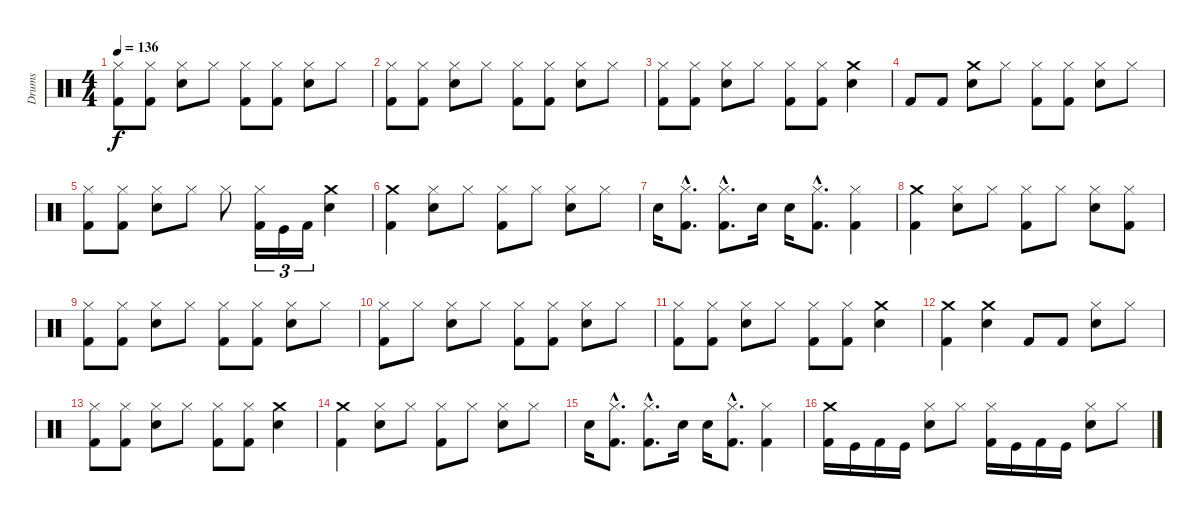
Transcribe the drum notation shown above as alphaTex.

\track ("Drums" "Drums") {instrument percussion}
\staff {score}
\articulation defaults
\ts (4 4)
\tempo 136
\clef neutral
\ks c
("Hi-Hat (closed)" "Kick (hit) 2").8{dy f} ("Hi-Hat (closed)" "Kick (hit) 2").8 ("Snare (hit) 2" "Hi-Hat (closed)").8 "Hi-Hat (closed)".8 ("Hi-Hat (closed)" "Kick (hit) 2").8 ("Hi-Hat (closed)" "Kick (hit) 2").8 ("Snare (hit) 2" "Hi-Hat (closed)").8 "Hi-Hat (closed)".8 |
("Hi-Hat (closed)" "Kick (hit) 2").8 ("Hi-Hat (closed)" "Kick (hit) 2").8 ("Snare (hit) 2" "Hi-Hat (closed)").8 "Hi-Hat (closed)".8 ("Hi-Hat (closed)" "Kick (hit) 2").8 ("Hi-Hat (closed)" "Kick (hit) 2").8 ("Snare (hit) 2" "Hi-Hat (closed)").8 "Hi-Hat (closed)".8 |
("Hi-Hat (closed)" "Kick (hit) 2").8 ("Hi-Hat (closed)" "Kick (hit) 2").8 ("Snare (hit) 2" "Hi-Hat (closed)").8 "Hi-Hat (closed)".8 ("Hi-Hat (closed)" "Kick (hit) 2").8 ("Hi-Hat (closed)" "Kick (hit) 2").8 ("Snare (hit) 2" "Crash medium (hit)").4 |
"Kick (hit) 2".8 "Kick (hit) 2".8 ("Crash medium (hit)" "Snare (hit) 2").8 "Hi-Hat (closed)".8 ("Hi-Hat (closed)" "Kick (hit) 2").8 ("Hi-Hat (closed)" "Kick (hit) 2").8 ("Snare (hit) 2" "Hi-Hat (closed)").8 "Hi-Hat (closed)".8 |
("Hi-Hat (closed)" "Kick (hit) 2").8 ("Hi-Hat (closed)" "Kick (hit) 2").8 ("Snare (hit) 2" "Hi-Hat (closed)").8 "Hi-Hat (closed)".8 "Hi-Hat (closed)".8 ("Hi-Hat (closed)" "Kick (hit) 2").16{tu (3 2)} "Kick (hit)".16{tu (3 2)} "Kick (hit) 2".16{tu (3 2)} ("Snare (hit) 2" "Crash medium (hit)").4 |
("Crash medium (hit)" "Kick (hit) 2").4 ("Hi-Hat (closed)" "Snare (hit) 2").8 "Hi-Hat (closed)".8 ("Hi-Hat (closed)" "Kick (hit) 2").8 "Hi-Hat (closed)".8 ("Snare (hit) 2" "Hi-Hat (closed)").8 "Hi-Hat (closed)".8 |
"Snare (hit) 2".16 ("Kick (hit) 2"{hac} "Hi-Hat (closed)"{hac}).8{d} ("Kick (hit) 2"{hac} "Hi-Hat (closed)"{hac}).8{d} "Snare (hit) 2".16 "Snare (hit) 2".16 ("Kick (hit) 2"{hac} "Hi-Hat (closed)"{hac}).8{d} ("Hi-Hat (closed)" "Kick (hit) 2").4 |
("Kick (hit) 2" "Crash medium (hit)").4 ("Hi-Hat (closed)" "Snare (hit) 2").8 "Hi-Hat (closed)".8 ("Kick (hit) 2" "Hi-Hat (closed)").8 "Hi-Hat (closed)".8 ("Snare (hit) 2" "Hi-Hat (closed)").8 ("Kick (hit) 2" "Hi-Hat (closed)").8 |
("Hi-Hat (closed)" "Kick (hit) 2").8 ("Hi-Hat (closed)" "Kick (hit) 2").8 ("Snare (hit) 2" "Hi-Hat (closed)").8 "Hi-Hat (closed)".8 ("Hi-Hat (closed)" "Kick (hit) 2").8 ("Hi-Hat (closed)" "Kick (hit) 2").8 ("Snare (hit) 2" "Hi-Hat (closed)").8 "Hi-Hat (closed)".8 |
("Hi-Hat (closed)" "Kick (hit) 2").8 "Hi-Hat (closed)".8 ("Snare (hit) 2" "Hi-Hat (closed)").8 "Hi-Hat (closed)".8 ("Hi-Hat (closed)" "Kick (hit) 2").8 ("Hi-Hat (closed)" "Kick (hit) 2").8 ("Snare (hit) 2" "Hi-Hat (closed)").8 "Hi-Hat (closed)".8 |
("Hi-Hat (closed)" "Kick (hit) 2").8 ("Hi-Hat (closed)" "Kick (hit) 2").8 ("Snare (hit) 2" "Hi-Hat (closed)").8 "Hi-Hat (closed)".8 ("Hi-Hat (closed)" "Kick (hit) 2").8 ("Hi-Hat (closed)" "Kick (hit) 2").8 ("Snare (hit) 2" "Crash medium (hit)").4 |
("Kick (hit) 2" "Crash medium (hit)").4 ("Snare (hit) 2" "Crash medium (hit)").4 "Kick (hit) 2".8 "Kick (hit) 2".8 ("Hi-Hat (closed)" "Snare (hit) 2").8 "Hi-Hat (closed)".8 |
("Hi-Hat (closed)" "Kick (hit) 2").8 ("Hi-Hat (closed)" "Kick (hit) 2").8 ("Snare (hit) 2" "Hi-Hat (closed)").8 "Hi-Hat (closed)".8 ("Kick (hit) 2" "Hi-Hat (closed)").8 ("Kick (hit) 2" "Hi-Hat (closed)").8 ("Crash medium (hit)" "Snare (hit) 2").4 |
("Kick (hit) 2" "Crash medium (hit)").4 ("Hi-Hat (closed)" "Snare (hit) 2").8 "Hi-Hat (closed)".8 ("Hi-Hat (closed)" "Kick (hit) 2").8 "Hi-Hat (closed)".8 ("Snare (hit) 2" "Hi-Hat (closed)").8 "Hi-Hat (closed)".8 |
"Snare (hit) 2".16 ("Kick (hit) 2"{hac} "Hi-Hat (closed)"{hac}).8{d} ("Kick (hit) 2"{hac} "Hi-Hat (closed)"{hac}).8{d} "Snare (hit) 2".16 "Snare (hit) 2".16 ("Kick (hit) 2"{hac} "Hi-Hat (closed)"{hac}).8{d} ("Hi-Hat (closed)" "Kick (hit) 2").4 |
("Crash medium (hit)" "Kick (hit) 2").16 "Kick (hit)".16 "Kick (hit) 2".16 "Kick (hit)".16 ("Hi-Hat (closed)" "Snare (hit) 2").8 "Hi-Hat (closed)".8 ("Hi-Hat (closed)" "Kick (hit) 2").16 "Kick (hit)".16 "Kick (hit) 2".16 "Kick (hit)".16 ("Hi-Hat (closed)" "Snare (hit) 2").8 "Hi-Hat (closed)".8
